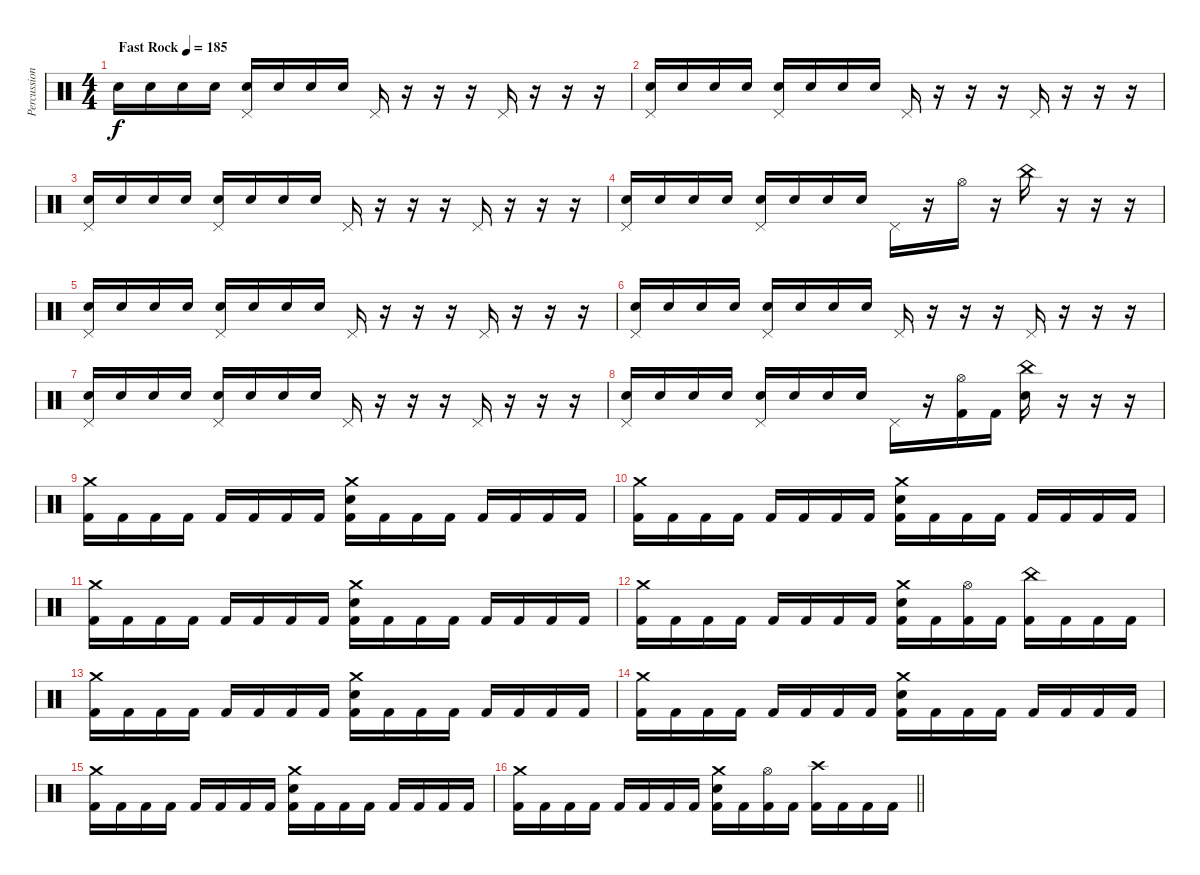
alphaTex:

\track ("Percussion" "Percussion") {instrument percussion}
\staff {score}
\articulation defaults
\ts (4 4)
\tempo (185 "Fast Rock")
\clef neutral
\ks c "Electric Snare (hit)".16{dy f} "Electric Snare (hit)".16 "Electric Snare (hit)".16 "Electric Snare (hit)".16
("Pedal Hi-Hat (hit)" "Electric Snare (hit)").16 "Electric Snare (hit)".16 "Electric Snare (hit)".16 "Electric Snare (hit)".16 "Pedal Hi-Hat (hit)".16 r.16 r.16 r.16 "Pedal Hi-Hat (hit)".16 r.16 r.16 r.16 |
("Pedal Hi-Hat (hit)" "Electric Snare (hit)").16 "Electric Snare (hit)".16 "Electric Snare (hit)".16 "Electric Snare (hit)".16 ("Pedal Hi-Hat (hit)" "Electric Snare (hit)").16 "Electric Snare (hit)".16 "Electric Snare (hit)".16 "Electric Snare (hit)".16 "Pedal Hi-Hat (hit)".16 r.16 r.16 r.16 "Pedal Hi-Hat (hit)".16 r.16 r.16 r.16 |
("Pedal Hi-Hat (hit)" "Electric Snare (hit)").16 "Electric Snare (hit)".16 "Electric Snare (hit)".16 "Electric Snare (hit)".16 ("Pedal Hi-Hat (hit)" "Electric Snare (hit)").16 "Electric Snare (hit)".16 "Electric Snare (hit)".16 "Electric Snare (hit)".16 "Pedal Hi-Hat (hit)".16 r.16 r.16 r.16 "Pedal Hi-Hat (hit)".16 r.16 r.16 r.16 |
("Pedal Hi-Hat (hit)" "Electric Snare (hit)").16 "Electric Snare (hit)".16 "Electric Snare (hit)".16 "Electric Snare (hit)".16 ("Pedal Hi-Hat (hit)" "Electric Snare (hit)").16 "Electric Snare (hit)".16 "Electric Snare (hit)".16 "Electric Snare (hit)".16 "Pedal Hi-Hat (hit)".16 r.16 "Hi-Hat (open)".16 r.16 "China (hit)".16 r.16 r.16 r.16 |
("Pedal Hi-Hat (hit)" "Electric Snare (hit)").16 "Electric Snare (hit)".16 "Electric Snare (hit)".16 "Electric Snare (hit)".16 ("Pedal Hi-Hat (hit)" "Electric Snare (hit)").16 "Electric Snare (hit)".16 "Electric Snare (hit)".16 "Electric Snare (hit)".16 "Pedal Hi-Hat (hit)".16 r.16 r.16 r.16 "Pedal Hi-Hat (hit)".16 r.16 r.16 r.16 |
("Pedal Hi-Hat (hit)" "Electric Snare (hit)").16 "Electric Snare (hit)".16 "Electric Snare (hit)".16 "Electric Snare (hit)".16 ("Pedal Hi-Hat (hit)" "Electric Snare (hit)").16 "Electric Snare (hit)".16 "Electric Snare (hit)".16 "Electric Snare (hit)".16 "Pedal Hi-Hat (hit)".16 r.16 r.16 r.16 "Pedal Hi-Hat (hit)".16 r.16 r.16 r.16 |
("Pedal Hi-Hat (hit)" "Electric Snare (hit)").16 "Electric Snare (hit)".16 "Electric Snare (hit)".16 "Electric Snare (hit)".16 ("Pedal Hi-Hat (hit)" "Electric Snare (hit)").16 "Electric Snare (hit)".16 "Electric Snare (hit)".16 "Electric Snare (hit)".16 "Pedal Hi-Hat (hit)".16 r.16 r.16 r.16 "Pedal Hi-Hat (hit)".16 r.16 r.16 r.16 |
("Pedal Hi-Hat (hit)" "Electric Snare (hit)").16 "Electric Snare (hit)".16 "Electric Snare (hit)".16 "Electric Snare (hit)".16 ("Pedal Hi-Hat (hit)" "Electric Snare (hit)").16 "Electric Snare (hit)".16 "Electric Snare (hit)".16 "Electric Snare (hit)".16 "Pedal Hi-Hat (hit)".16 r.16 ("Hi-Hat (open)" "Kick (hit) 2").16 "Kick (hit) 2".16 ("China (hit)" "Electric Snare (hit)").16 r.16 r.16 r.16 |
("Crash medium (hit)" "Kick (hit) 2").16 "Kick (hit) 2".16 "Kick (hit) 2".16 "Kick (hit) 2".16 "Kick (hit) 2".16 "Kick (hit) 2".16 "Kick (hit) 2".16 "Kick (hit) 2".16 ("Crash medium (hit)" "Electric Snare (hit)" "Kick (hit) 2").16 "Kick (hit) 2".16 "Kick (hit) 2".16 "Kick (hit) 2".16 "Kick (hit) 2".16 "Kick (hit) 2".16 "Kick (hit) 2".16 "Kick (hit) 2".16 |
("Crash medium (hit)" "Kick (hit) 2").16 "Kick (hit) 2".16 "Kick (hit) 2".16 "Kick (hit) 2".16 "Kick (hit) 2".16 "Kick (hit) 2".16 "Kick (hit) 2".16 "Kick (hit) 2".16 ("Crash medium (hit)" "Electric Snare (hit)" "Kick (hit) 2").16 "Kick (hit) 2".16 "Kick (hit) 2".16 "Kick (hit) 2".16 "Kick (hit) 2".16 "Kick (hit) 2".16 "Kick (hit) 2".16 "Kick (hit) 2".16 |
("Crash medium (hit)" "Kick (hit) 2").16 "Kick (hit) 2".16 "Kick (hit) 2".16 "Kick (hit) 2".16 "Kick (hit) 2".16 "Kick (hit) 2".16 "Kick (hit) 2".16 "Kick (hit) 2".16 ("Crash medium (hit)" "Electric Snare (hit)" "Kick (hit) 2").16 "Kick (hit) 2".16 "Kick (hit) 2".16 "Kick (hit) 2".16 "Kick (hit) 2".16 "Kick (hit) 2".16 "Kick (hit) 2".16 "Kick (hit) 2".16 |
("Crash medium (hit)" "Kick (hit) 2").16 "Kick (hit) 2".16 "Kick (hit) 2".16 "Kick (hit) 2".16 "Kick (hit) 2".16 "Kick (hit) 2".16 "Kick (hit) 2".16 "Kick (hit) 2".16 ("Crash medium (hit)" "Electric Snare (hit)" "Kick (hit) 2").16 "Kick (hit) 2".16 ("Hi-Hat (open)" "Kick (hit) 2").16 "Kick (hit) 2".16 ("China (hit)" "Kick (hit) 2").16 "Kick (hit) 2".16 "Kick (hit) 2".16 "Kick (hit) 2".16 |
("Crash medium (hit)" "Kick (hit) 2").16 "Kick (hit) 2".16 "Kick (hit) 2".16 "Kick (hit) 2".16 "Kick (hit) 2".16 "Kick (hit) 2".16 "Kick (hit) 2".16 "Kick (hit) 2".16 ("Crash medium (hit)" "Electric Snare (hit)" "Kick (hit) 2").16 "Kick (hit) 2".16 "Kick (hit) 2".16 "Kick (hit) 2".16 "Kick (hit) 2".16 "Kick (hit) 2".16 "Kick (hit) 2".16 "Kick (hit) 2".16 |
("Crash medium (hit)" "Kick (hit) 2").16 "Kick (hit) 2".16 "Kick (hit) 2".16 "Kick (hit) 2".16 "Kick (hit) 2".16 "Kick (hit) 2".16 "Kick (hit) 2".16 "Kick (hit) 2".16 ("Crash medium (hit)" "Electric Snare (hit)" "Kick (hit) 2").16 "Kick (hit) 2".16 "Kick (hit) 2".16 "Kick (hit) 2".16 "Kick (hit) 2".16 "Kick (hit) 2".16 "Kick (hit) 2".16 "Kick (hit) 2".16 |
("Crash medium (hit)" "Kick (hit) 2").16 "Kick (hit) 2".16 "Kick (hit) 2".16 "Kick (hit) 2".16 "Kick (hit) 2".16 "Kick (hit) 2".16 "Kick (hit) 2".16 "Kick (hit) 2".16 ("Crash medium (hit)" "Electric Snare (hit)" "Kick (hit) 2").16 "Kick (hit) 2".16 "Kick (hit) 2".16 "Kick (hit) 2".16 "Kick (hit) 2".16 "Kick (hit) 2".16 "Kick (hit) 2".16 "Kick (hit) 2".16 |
\barLineRight lightlight
("Crash medium (hit)" "Kick (hit) 2").16 "Kick (hit) 2".16 "Kick (hit) 2".16 "Kick (hit) 2".16 "Kick (hit) 2".16 "Kick (hit) 2".16 "Kick (hit) 2".16 "Kick (hit) 2".16 ("Crash medium (hit)" "Electric Snare (hit)" "Kick (hit) 2").16 "Kick (hit) 2".16 ("Hi-Hat (open)" "Kick (hit) 2").16 "Kick (hit) 2".16 ("Crash high (hit)" "Kick (hit) 2").16 "Kick (hit) 2".16 "Kick (hit) 2".16 "Kick (hit) 2".16
